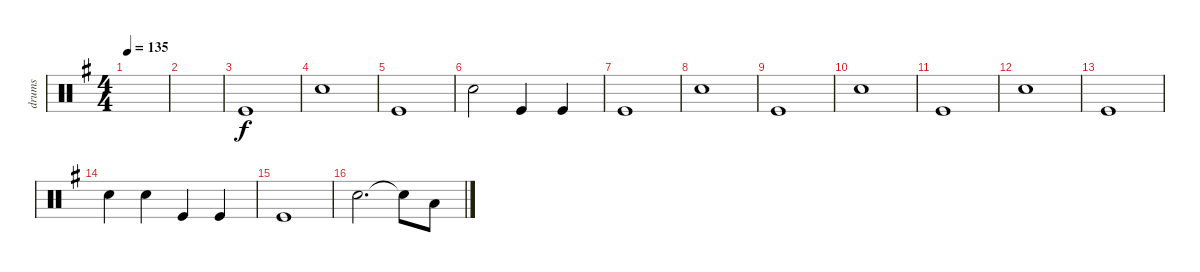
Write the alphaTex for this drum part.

\track ("drums" "drums") {instrument percussion}
\staff {score}
\articulation defaults
\ts (4 4)
\tempo 135
\clef neutral
\ks eminor
|
|
"Kick (hit)".1 |
"Electric Snare (hit)".1 |
"Kick (hit)".1 |
"Electric Snare (hit)".2 "Kick (hit)".4 "Kick (hit)".4 |
"Kick (hit)".1 |
"Electric Snare (hit)".1 |
"Kick (hit)".1 |
"Electric Snare (hit)".1 |
"Kick (hit)".1 |
"Electric Snare (hit)".1 |
"Kick (hit)".1 |
"Electric Snare (hit)".4 "Electric Snare (hit)".4 "Kick (hit)".4 "Kick (hit)".4 |
"Kick (hit)".1 |
"Electric Snare (hit)".2{d} "Snare (hit)"{t}.8 "Low Floor Tom (hit)".8
